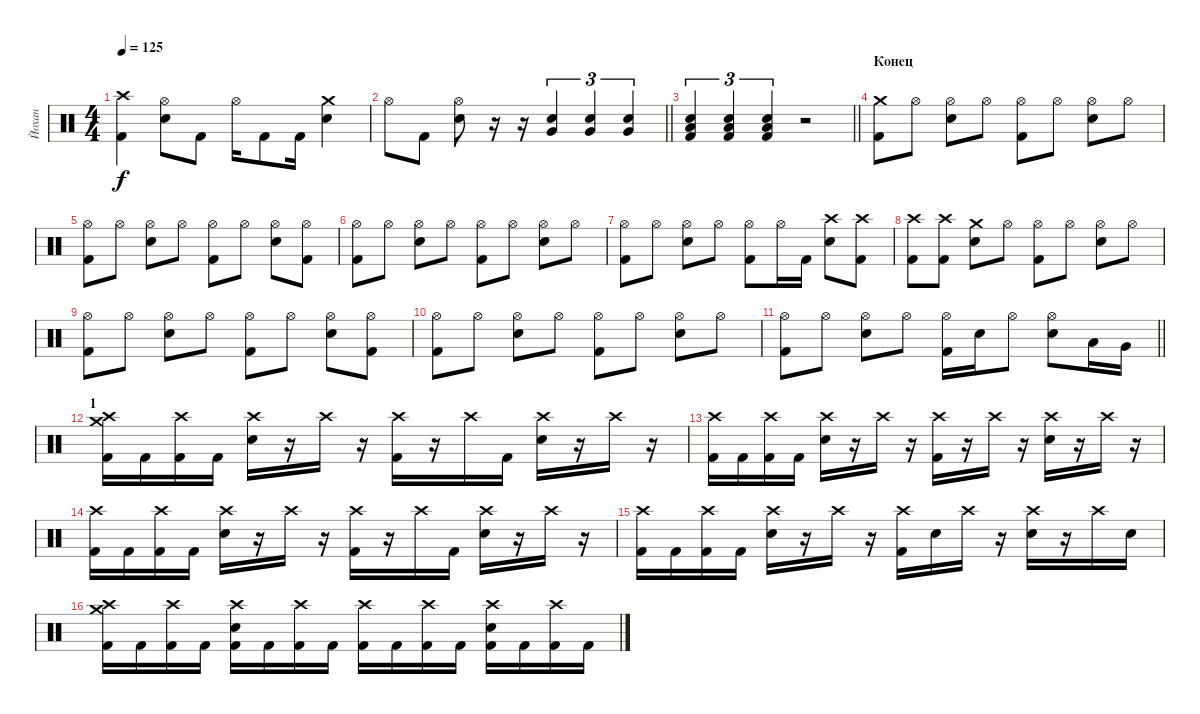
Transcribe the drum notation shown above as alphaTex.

\track ("Йохан" "Йохан") {instrument percussion}
\staff {score}
\articulation defaults
\ts (4 4)
\tempo 125
\clef neutral
\ks c
("Crash high (hit)" "Kick (hit) 2").4{dy f} ("Hi-Hat (open)" "Snare (hit) 2").8 "Kick (hit) 2".8 "Hi-Hat (open)".16 "Kick (hit) 2".8 "Kick (hit) 2".16 ("Crash medium (hit)" "Snare (hit) 2").4 |
\barLineRight lightlight "Hi-Hat (open)".8 "Kick (hit) 2".8
("Hi-Hat (open)" "Snare (hit) 2").8 r.16 r.16 ("Very Low Tom (hit)" "Snare (hit) 2").4{tu (3 2)} ("Very Low Tom (hit)" "Snare (hit) 2").4{tu (3 2)} ("Very Low Tom (hit)" "Snare (hit) 2").4{tu (3 2)} |
\barLineRight lightlight
("Low Tom (hit)" "Snare (hit) 2" "Kick (hit) 2").4{tu (3 2)} ("Low Tom (hit)" "Snare (hit) 2" "Kick (hit) 2").4{tu (3 2)} ("Low Tom (hit)" "Snare (hit) 2" "Kick (hit) 2").4{tu (3 2)} r.2 |
\section ("" "Конец")
("Crash medium (hit)" "Kick (hit) 2").8 "Hi-Hat (open)".8 ("Hi-Hat (open)" "Snare (hit) 2").8 "Hi-Hat (open)".8 ("Hi-Hat (open)" "Kick (hit) 2").8 "Hi-Hat (open)".8 ("Hi-Hat (open)" "Snare (hit) 2").8 "Hi-Hat (open)".8 |
("Hi-Hat (open)" "Kick (hit) 2").8 "Hi-Hat (open)".8 ("Hi-Hat (open)" "Snare (hit) 2").8 "Hi-Hat (open)".8 ("Hi-Hat (open)" "Kick (hit) 2").8 "Hi-Hat (open)".8 ("Hi-Hat (open)" "Snare (hit) 2").8 ("Hi-Hat (open)" "Kick (hit) 2").8 |
("Hi-Hat (open)" "Kick (hit) 2").8 "Hi-Hat (open)".8 ("Hi-Hat (open)" "Snare (hit) 2").8 "Hi-Hat (open)".8 ("Hi-Hat (open)" "Kick (hit) 2").8 "Hi-Hat (open)".8 ("Hi-Hat (open)" "Snare (hit) 2").8 "Hi-Hat (open)".8 |
("Hi-Hat (open)" "Kick (hit) 2").8 "Hi-Hat (open)".8 ("Hi-Hat (open)" "Snare (hit) 2").8 "Hi-Hat (open)".8 ("Hi-Hat (open)" "Kick (hit) 2").8 "Hi-Hat (open)".16 "Kick (hit) 2".16 ("Crash high (hit)" "Snare (hit) 2").8 ("Crash high (hit)" "Kick (hit) 2").8 |
("Crash high (hit)" "Kick (hit) 2").8 ("Crash high (hit)" "Kick (hit) 2").8 ("Crash medium (hit)" "Snare (hit) 2").8 "Hi-Hat (open)".8 ("Hi-Hat (open)" "Kick (hit) 2").8 "Hi-Hat (open)".8 ("Hi-Hat (open)" "Snare (hit) 2").8 "Hi-Hat (open)".8 |
("Hi-Hat (open)" "Kick (hit) 2").8 "Hi-Hat (open)".8 ("Hi-Hat (open)" "Snare (hit) 2").8 "Hi-Hat (open)".8 ("Hi-Hat (open)" "Kick (hit) 2").8 "Hi-Hat (open)".8 ("Hi-Hat (open)" "Snare (hit) 2").8 ("Hi-Hat (open)" "Kick (hit) 2").8 |
("Hi-Hat (open)" "Kick (hit) 2").8 "Hi-Hat (open)".8 ("Hi-Hat (open)" "Snare (hit) 2").8 "Hi-Hat (open)".8 ("Hi-Hat (open)" "Kick (hit) 2").8 "Hi-Hat (open)".8 ("Hi-Hat (open)" "Snare (hit) 2").8 "Hi-Hat (open)".8 |
\barLineRight lightlight
("Hi-Hat (open)" "Kick (hit) 2").8 "Hi-Hat (open)".8 ("Hi-Hat (open)" "Snare (hit) 2").8 "Hi-Hat (open)".8 ("Hi-Hat (open)" "Kick (hit) 2").16 "Snare (hit) 2".16 "Hi-Hat (open)".8 ("Hi-Hat (open)" "Snare (hit) 2").8 "Low Floor Tom (hit)".16 "Very Low Tom (hit)".16 |
\section ("" "1")
("Crash high (hit)" "Crash medium (hit)" "Kick (hit) 2").16 "Kick (hit) 2".16 ("Crash high (hit)" "Kick (hit) 2").16 "Kick (hit) 2".16 ("Crash high (hit)" "Snare (hit) 2").16 r.16 "Crash high (hit)".16 r.16 ("Crash high (hit)" "Kick (hit) 2").16 r.16 "Crash high (hit)".16 "Kick (hit) 2".16 ("Crash high (hit)" "Snare (hit) 2").16 r.16 "Crash high (hit)".16 r.16 |
("Crash high (hit)" "Kick (hit) 2").16 "Kick (hit) 2".16 ("Crash high (hit)" "Kick (hit) 2").16 "Kick (hit) 2".16 ("Crash high (hit)" "Snare (hit) 2").16 r.16 "Crash high (hit)".16 r.16 ("Crash high (hit)" "Kick (hit) 2").16 r.16 "Crash high (hit)".16 r.16 ("Crash high (hit)" "Snare (hit) 2").16 r.16 "Crash high (hit)".16 r.16 |
("Crash high (hit)" "Kick (hit) 2").16 "Kick (hit) 2".16 ("Crash high (hit)" "Kick (hit) 2").16 "Kick (hit) 2".16 ("Crash high (hit)" "Snare (hit) 2").16 r.16 "Crash high (hit)".16 r.16 ("Crash high (hit)" "Kick (hit) 2").16 r.16 "Crash high (hit)".16 "Kick (hit) 2".16 ("Crash high (hit)" "Snare (hit) 2").16 r.16 "Crash high (hit)".16 r.16 |
("Crash high (hit)" "Kick (hit) 2").16 "Kick (hit) 2".16 ("Crash high (hit)" "Kick (hit) 2").16 "Kick (hit) 2".16 ("Crash high (hit)" "Snare (hit) 2").16 r.16 "Crash high (hit)".16 r.16 ("Crash high (hit)" "Kick (hit) 2").16 "Snare (hit) 2".16 "Crash high (hit)".16 r.16 ("Crash high (hit)" "Snare (hit) 2").16 r.16 "Crash high (hit)".16 "Snare (hit) 2".16 |
("Crash high (hit)" "Crash medium (hit)" "Kick (hit) 2").16 "Kick (hit) 2".16 ("Crash high (hit)" "Kick (hit) 2").16 "Kick (hit) 2".16 ("Crash high (hit)" "Snare (hit) 2" "Kick (hit) 2").16 "Kick (hit) 2".16 ("Crash high (hit)" "Kick (hit) 2").16 "Kick (hit) 2".16 ("Crash high (hit)" "Kick (hit) 2").16 "Kick (hit) 2".16 ("Crash high (hit)" "Kick (hit) 2").16 "Kick (hit) 2".16 ("Crash high (hit)" "Snare (hit) 2" "Kick (hit) 2").16 "Kick (hit) 2".16 ("Crash high (hit)" "Kick (hit) 2").16 "Kick (hit) 2".16
